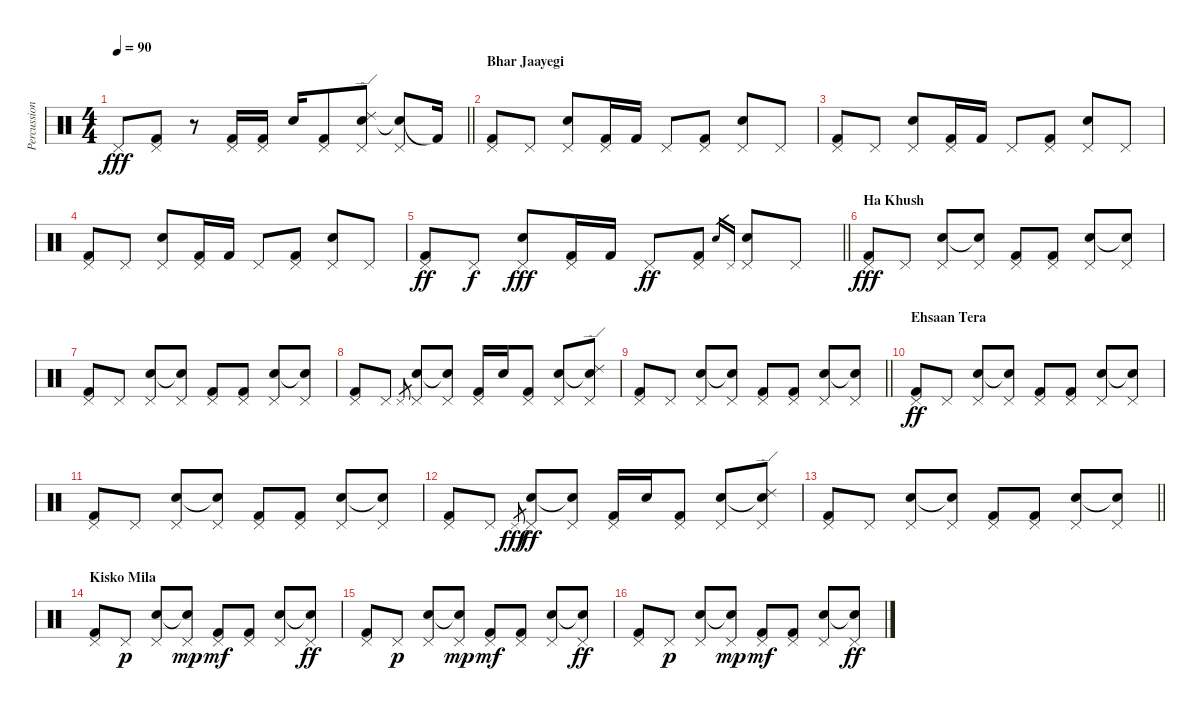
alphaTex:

\track ("Percussion" "Percussion") {instrument percussion}
\staff {score}
\articulation defaults
\ts (4 4)
\tempo 90
\clef neutral
\barLineRight lightlight
\ks c "Pedal Hi-Hat (hit)".8{dy fff}
("Kick (hit) 2" "Pedal Hi-Hat (hit)").8 r.8 ("Kick (hit) 2" "Pedal Hi-Hat (hit)").16 ("Kick (hit) 2" "Pedal Hi-Hat (hit)").16 "Electric Snare (hit)".16 ("Kick (hit) 2" "Pedal Hi-Hat (hit)").8 ("Electric Snare (hit)" "Pedal Hi-Hat (hit)" "Ride (edge) 2").8 ("Snare (hit)"{t} "Pedal Hi-Hat (hit)").8 "Kick (hit) 2"{t}.16 |
\section ("" "Bhar Jaayegi ")
("Kick (hit) 2" "Pedal Hi-Hat (hit)").8 "Pedal Hi-Hat (hit)".8 ("Electric Snare (hit)" "Pedal Hi-Hat (hit)").8 ("Kick (hit) 2" "Pedal Hi-Hat (hit)").16 "Kick (hit) 2".16 "Pedal Hi-Hat (hit)".8 ("Kick (hit) 2" "Pedal Hi-Hat (hit)").8 ("Electric Snare (hit)" "Pedal Hi-Hat (hit)").8 "Pedal Hi-Hat (hit)".8 |
("Kick (hit) 2" "Pedal Hi-Hat (hit)").8 "Pedal Hi-Hat (hit)".8 ("Electric Snare (hit)" "Pedal Hi-Hat (hit)").8 ("Kick (hit) 2" "Pedal Hi-Hat (hit)").16 "Kick (hit) 2".16 "Pedal Hi-Hat (hit)".8 ("Kick (hit) 2" "Pedal Hi-Hat (hit)").8 ("Electric Snare (hit)" "Pedal Hi-Hat (hit)").8 "Pedal Hi-Hat (hit)".8 |
("Kick (hit) 2" "Pedal Hi-Hat (hit)").8 "Pedal Hi-Hat (hit)".8 ("Electric Snare (hit)" "Pedal Hi-Hat (hit)").8 ("Kick (hit) 2" "Pedal Hi-Hat (hit)").16 "Kick (hit) 2".16 "Pedal Hi-Hat (hit)".8 ("Kick (hit) 2" "Pedal Hi-Hat (hit)").8 ("Electric Snare (hit)" "Pedal Hi-Hat (hit)").8 "Pedal Hi-Hat (hit)".8 |
\barLineRight lightlight
("Kick (hit) 2" "Pedal Hi-Hat (hit)").8{dy ff} "Pedal Hi-Hat (hit)".8{dy f} ("Electric Snare (hit)" "Pedal Hi-Hat (hit)").8{dy fff} ("Kick (hit) 2" "Pedal Hi-Hat (hit)").16 "Kick (hit) 2".16 "Pedal Hi-Hat (hit)".8{dy ff} ("Kick (hit) 2" "Pedal Hi-Hat (hit)").8 "Electric Snare (hit)"{sl}.16{gr} "Pedal Hi-Hat (hit)".16{gr} ("Electric Snare (hit)" "Pedal Hi-Hat (hit)").8 "Pedal Hi-Hat (hit)".8 |
\section ("" "Ha Khush")
("Kick (hit) 2" "Pedal Hi-Hat (hit)").8{dy fff} "Pedal Hi-Hat (hit)".8 ("Electric Snare (hit)" "Pedal Hi-Hat (hit)").8 ("Snare (hit)"{t} "Pedal Hi-Hat (hit)").8 ("Kick (hit) 2" "Pedal Hi-Hat (hit)").8 ("Kick (hit) 2" "Pedal Hi-Hat (hit)").8 ("Electric Snare (hit)" "Pedal Hi-Hat (hit)").8 ("Snare (hit)"{t} "Pedal Hi-Hat (hit)").8 |
("Kick (hit) 2" "Pedal Hi-Hat (hit)").8 "Pedal Hi-Hat (hit)".8 ("Electric Snare (hit)" "Pedal Hi-Hat (hit)").8 ("Snare (hit)"{t} "Pedal Hi-Hat (hit)").8 ("Kick (hit) 2" "Pedal Hi-Hat (hit)").8 ("Kick (hit) 2" "Pedal Hi-Hat (hit)").8 ("Electric Snare (hit)" "Pedal Hi-Hat (hit)").8 ("Snare (hit)"{t} "Pedal Hi-Hat (hit)").8 |
("Kick (hit) 2" "Pedal Hi-Hat (hit)").8 "Pedal Hi-Hat (hit)".8 "Pedal Hi-Hat (hit)".8{gr} ("Electric Snare (hit)" "Pedal Hi-Hat (hit)").8 ("Snare (hit)"{t} "Pedal Hi-Hat (hit)").8 ("Kick (hit) 2" "Pedal Hi-Hat (hit)").16 "Electric Snare (hit)".16 ("Kick (hit) 2" "Pedal Hi-Hat (hit)").8 ("Electric Snare (hit)" "Pedal Hi-Hat (hit)").8 ("Snare (hit)"{t} "Pedal Hi-Hat (hit)" "Ride (edge) 2").8 |
\barLineRight lightlight
("Kick (hit) 2" "Pedal Hi-Hat (hit)").8 "Pedal Hi-Hat (hit)".8 ("Electric Snare (hit)" "Pedal Hi-Hat (hit)").8 ("Snare (hit)"{t} "Pedal Hi-Hat (hit)").8 ("Kick (hit) 2" "Pedal Hi-Hat (hit)").8 ("Kick (hit) 2" "Pedal Hi-Hat (hit)").8 ("Electric Snare (hit)" "Pedal Hi-Hat (hit)").8 ("Snare (hit)"{t} "Pedal Hi-Hat (hit)").8 |
\section ("" "Ehsaan Tera ")
("Kick (hit) 2" "Pedal Hi-Hat (hit)").8{dy ff} "Pedal Hi-Hat (hit)".8 ("Electric Snare (hit)" "Pedal Hi-Hat (hit)").8 ("Snare (hit)"{t} "Pedal Hi-Hat (hit)").8 ("Kick (hit) 2" "Pedal Hi-Hat (hit)").8 ("Kick (hit) 2" "Pedal Hi-Hat (hit)").8 ("Electric Snare (hit)" "Pedal Hi-Hat (hit)").8 ("Snare (hit)"{t} "Pedal Hi-Hat (hit)").8 |
("Kick (hit) 2" "Pedal Hi-Hat (hit)").8 "Pedal Hi-Hat (hit)".8 ("Electric Snare (hit)" "Pedal Hi-Hat (hit)").8 ("Snare (hit)"{t} "Pedal Hi-Hat (hit)").8 ("Kick (hit) 2" "Pedal Hi-Hat (hit)").8 ("Kick (hit) 2" "Pedal Hi-Hat (hit)").8 ("Electric Snare (hit)" "Pedal Hi-Hat (hit)").8 ("Snare (hit)"{t} "Pedal Hi-Hat (hit)").8 |
("Kick (hit) 2" "Pedal Hi-Hat (hit)").8 "Pedal Hi-Hat (hit)".8 "Pedal Hi-Hat (hit)".8{gr dy fff} ("Electric Snare (hit)" "Pedal Hi-Hat (hit)").8{dy ff} ("Snare (hit)"{t} "Pedal Hi-Hat (hit)").8 ("Kick (hit) 2" "Pedal Hi-Hat (hit)").16 "Electric Snare (hit)".16 ("Kick (hit) 2" "Pedal Hi-Hat (hit)").8 ("Electric Snare (hit)" "Pedal Hi-Hat (hit)").8 ("Snare (hit)"{t} "Pedal Hi-Hat (hit)" "Ride (edge) 2").8 |
\barLineRight lightlight
("Kick (hit) 2" "Pedal Hi-Hat (hit)").8 "Pedal Hi-Hat (hit)".8 ("Electric Snare (hit)" "Pedal Hi-Hat (hit)").8 ("Snare (hit)"{t} "Pedal Hi-Hat (hit)").8 ("Kick (hit) 2" "Pedal Hi-Hat (hit)").8 ("Kick (hit) 2" "Pedal Hi-Hat (hit)").8 ("Electric Snare (hit)" "Pedal Hi-Hat (hit)").8 ("Snare (hit)"{t} "Pedal Hi-Hat (hit)").8 |
\section ("" "Kisko Mila")
("Kick (hit) 2" "Pedal Hi-Hat (hit)").8 "Pedal Hi-Hat (hit)".8{dy p} ("Electric Snare (hit)" "Pedal Hi-Hat (hit)").8 ("Snare (hit)"{t} "Pedal Hi-Hat (hit)").8{dy mp} ("Kick (hit) 2" "Pedal Hi-Hat (hit)").8{dy mf} ("Kick (hit) 2" "Pedal Hi-Hat (hit)").8 ("Electric Snare (hit)" "Pedal Hi-Hat (hit)").8 ("Snare (hit)"{t} "Pedal Hi-Hat (hit)").8{dy ff} |
("Kick (hit) 2" "Pedal Hi-Hat (hit)").8 "Pedal Hi-Hat (hit)".8{dy p} ("Electric Snare (hit)" "Pedal Hi-Hat (hit)").8 ("Snare (hit)"{t} "Pedal Hi-Hat (hit)").8{dy mp} ("Kick (hit) 2" "Pedal Hi-Hat (hit)").8{dy mf} ("Kick (hit) 2" "Pedal Hi-Hat (hit)").8 ("Electric Snare (hit)" "Pedal Hi-Hat (hit)").8 ("Snare (hit)"{t} "Pedal Hi-Hat (hit)").8{dy ff} |
("Kick (hit) 2" "Pedal Hi-Hat (hit)").8 "Pedal Hi-Hat (hit)".8{dy p} ("Electric Snare (hit)" "Pedal Hi-Hat (hit)").8 ("Snare (hit)"{t} "Pedal Hi-Hat (hit)").8{dy mp} ("Kick (hit) 2" "Pedal Hi-Hat (hit)").8{dy mf} ("Kick (hit) 2" "Pedal Hi-Hat (hit)").8 ("Electric Snare (hit)" "Pedal Hi-Hat (hit)").8 ("Snare (hit)"{t} "Pedal Hi-Hat (hit)").8{dy ff}
